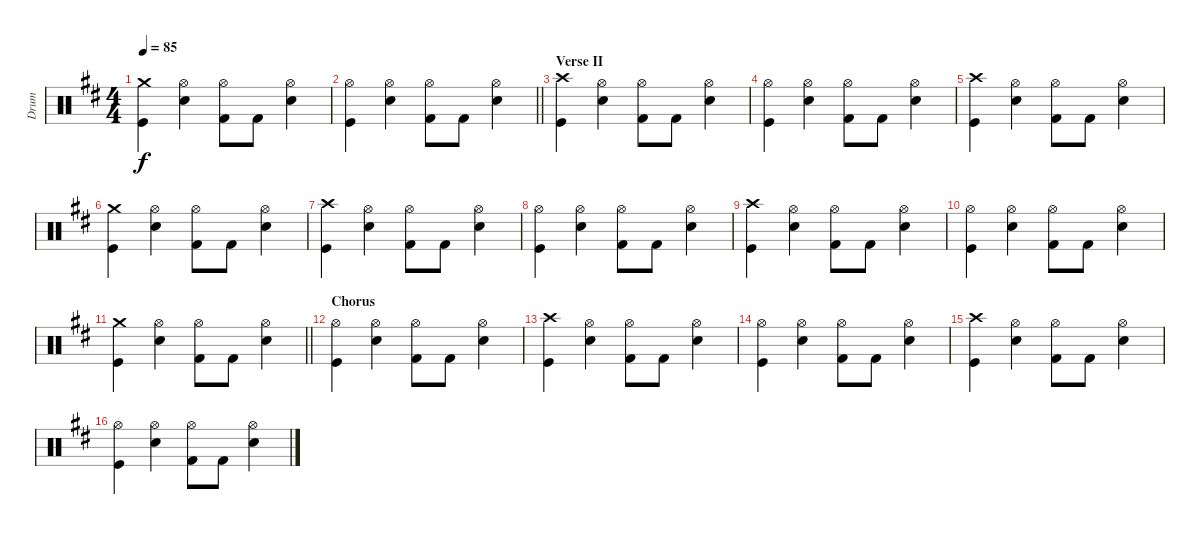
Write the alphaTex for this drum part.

\track ("Drum" "Drum") {instrument percussion}
\staff {score}
\articulation defaults
\ts (4 4)
\tempo 85
\clef neutral
\ks d
("Kick (hit)" "Crash medium (hit)").4{dy f} ("Electric Snare (hit)" "Hi-Hat (open)").4 ("Kick (hit) 2" "Hi-Hat (open)").8 "Kick (hit) 2".8 ("Snare (hit) 2" "Hi-Hat (open)").4 |
\barLineRight lightlight
("Kick (hit)" "Hi-Hat (open)").4 ("Electric Snare (hit)" "Hi-Hat (open)").4 ("Kick (hit) 2" "Hi-Hat (open)").8 "Kick (hit) 2".8 ("Snare (hit) 2" "Hi-Hat (open)").4 |
\section ("" "Verse II")
("Kick (hit)" "Crash high (hit)").4 ("Electric Snare (hit)" "Hi-Hat (open)").4 ("Kick (hit) 2" "Hi-Hat (open)").8 "Kick (hit) 2".8 ("Snare (hit) 2" "Hi-Hat (open)").4 |
("Kick (hit)" "Hi-Hat (open)").4 ("Electric Snare (hit)" "Hi-Hat (open)").4 ("Kick (hit) 2" "Hi-Hat (open)").8 "Kick (hit) 2".8 ("Snare (hit) 2" "Hi-Hat (open)").4 |
("Kick (hit)" "Crash high (hit)").4 ("Electric Snare (hit)" "Hi-Hat (open)").4 ("Kick (hit) 2" "Hi-Hat (open)").8 "Kick (hit) 2".8 ("Snare (hit) 2" "Hi-Hat (open)").4 |
("Kick (hit)" "Crash medium (hit)").4 ("Electric Snare (hit)" "Hi-Hat (open)").4 ("Kick (hit) 2" "Hi-Hat (open)").8 "Kick (hit) 2".8 ("Snare (hit) 2" "Hi-Hat (open)").4 |
("Kick (hit)" "Crash high (hit)").4 ("Electric Snare (hit)" "Hi-Hat (open)").4 ("Kick (hit) 2" "Hi-Hat (open)").8 "Kick (hit) 2".8 ("Snare (hit) 2" "Hi-Hat (open)").4 |
("Kick (hit)" "Hi-Hat (open)").4 ("Electric Snare (hit)" "Hi-Hat (open)").4 ("Kick (hit) 2" "Hi-Hat (open)").8 "Kick (hit) 2".8 ("Snare (hit) 2" "Hi-Hat (open)").4 |
("Kick (hit)" "Crash high (hit)").4 ("Electric Snare (hit)" "Hi-Hat (open)").4 ("Kick (hit) 2" "Hi-Hat (open)").8 "Kick (hit) 2".8 ("Snare (hit) 2" "Hi-Hat (open)").4 |
("Kick (hit)" "Hi-Hat (open)").4 ("Electric Snare (hit)" "Hi-Hat (open)").4 ("Kick (hit) 2" "Hi-Hat (open)").8 "Kick (hit) 2".8 ("Snare (hit) 2" "Hi-Hat (open)").4 |
\barLineRight lightlight
("Kick (hit)" "Crash medium (hit)").4 ("Electric Snare (hit)" "Hi-Hat (open)").4 ("Kick (hit) 2" "Hi-Hat (open)").8 "Kick (hit) 2".8 ("Snare (hit) 2" "Hi-Hat (open)").4 |
\section ("" "Chorus")
("Kick (hit)" "Hi-Hat (open)").4 ("Electric Snare (hit)" "Hi-Hat (open)").4 ("Kick (hit) 2" "Hi-Hat (open)").8 "Kick (hit) 2".8 ("Snare (hit) 2" "Hi-Hat (open)").4 |
("Kick (hit)" "Crash high (hit)").4 ("Electric Snare (hit)" "Hi-Hat (open)").4 ("Kick (hit) 2" "Hi-Hat (open)").8 "Kick (hit) 2".8 ("Snare (hit) 2" "Hi-Hat (open)").4 |
("Kick (hit)" "Hi-Hat (open)").4 ("Electric Snare (hit)" "Hi-Hat (open)").4 ("Kick (hit) 2" "Hi-Hat (open)").8 "Kick (hit) 2".8 ("Snare (hit) 2" "Hi-Hat (open)").4 |
("Kick (hit)" "Crash high (hit)").4 ("Electric Snare (hit)" "Hi-Hat (open)").4 ("Kick (hit) 2" "Hi-Hat (open)").8 "Kick (hit) 2".8 ("Snare (hit) 2" "Hi-Hat (open)").4 |
("Kick (hit)" "Hi-Hat (open)").4 ("Electric Snare (hit)" "Hi-Hat (open)").4 ("Kick (hit) 2" "Hi-Hat (open)").8 "Kick (hit) 2".8 ("Snare (hit) 2" "Hi-Hat (open)").4
